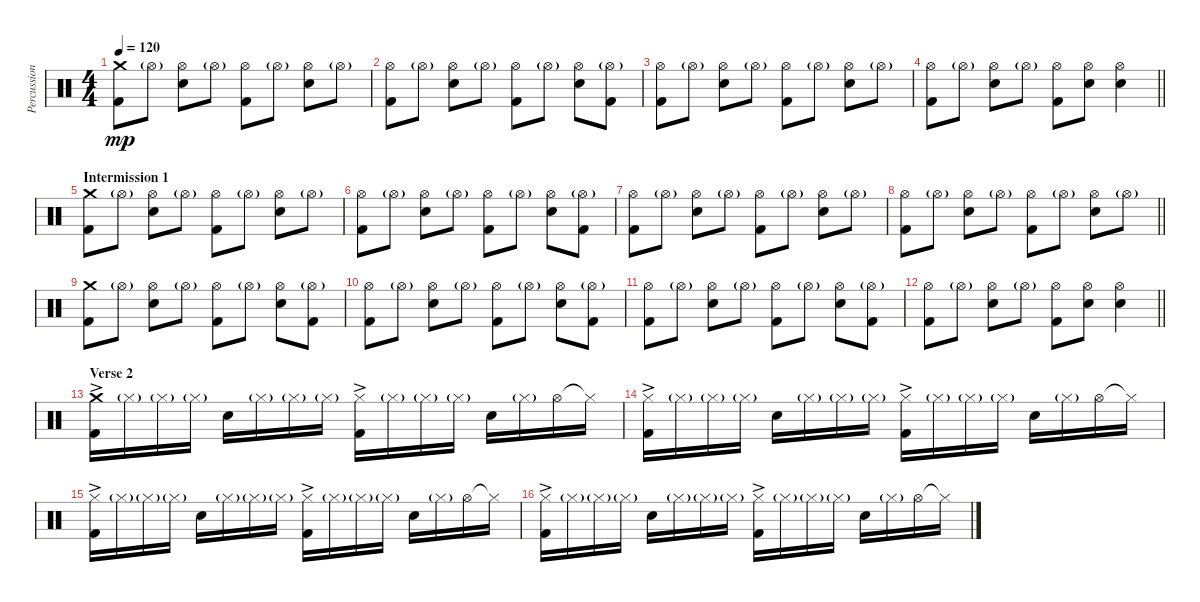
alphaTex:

\track ("Percussion" "Percussion") {instrument percussion}
\staff {score}
\articulation defaults
\ts (4 4)
\tempo 120
\clef neutral
\ks c
("Crash medium (hit)" "Kick (hit) 2").8{dy mp} "Hi-Hat (open)"{g}.8 ("Hi-Hat (open)" "Electric Snare (hit)").8 "Hi-Hat (open)"{g}.8 ("Hi-Hat (open)" "Kick (hit) 2").8 "Hi-Hat (open)"{g}.8 ("Hi-Hat (open)" "Electric Snare (hit)").8 "Hi-Hat (open)"{g}.8 |
("Hi-Hat (open)" "Kick (hit) 2").8 "Hi-Hat (open)"{g}.8 ("Hi-Hat (open)" "Electric Snare (hit)").8 "Hi-Hat (open)"{g}.8 ("Hi-Hat (open)" "Kick (hit) 2").8 "Hi-Hat (open)"{g}.8 ("Hi-Hat (open)" "Electric Snare (hit)").8 ("Hi-Hat (open)"{g} "Kick (hit) 2").8 |
("Hi-Hat (open)" "Kick (hit) 2").8 "Hi-Hat (open)"{g}.8 ("Hi-Hat (open)" "Electric Snare (hit)").8 "Hi-Hat (open)"{g}.8 ("Hi-Hat (open)" "Kick (hit) 2").8 "Hi-Hat (open)"{g}.8 ("Hi-Hat (open)" "Electric Snare (hit)").8 "Hi-Hat (open)"{g}.8 |
\barLineRight lightlight
("Hi-Hat (open)" "Kick (hit) 2").8 "Hi-Hat (open)"{g}.8 ("Hi-Hat (open)" "Electric Snare (hit)").8 "Hi-Hat (open)"{g}.8 ("Hi-Hat (open)" "Kick (hit) 2").8 ("Hi-Hat (open)" "Electric Snare (hit)").8 ("Hi-Hat (open)" "Electric Snare (hit)").4 |
\section ("" "Intermission 1")
("Crash medium (hit)" "Kick (hit) 2").8 "Hi-Hat (open)"{g}.8 ("Hi-Hat (open)" "Electric Snare (hit)").8 "Hi-Hat (open)"{g}.8 ("Hi-Hat (open)" "Kick (hit) 2").8 "Hi-Hat (open)"{g}.8 ("Hi-Hat (open)" "Electric Snare (hit)").8 "Hi-Hat (open)"{g}.8 |
("Hi-Hat (open)" "Kick (hit) 2").8 "Hi-Hat (open)"{g}.8 ("Hi-Hat (open)" "Electric Snare (hit)").8 "Hi-Hat (open)"{g}.8 ("Hi-Hat (open)" "Kick (hit) 2").8 "Hi-Hat (open)"{g}.8 ("Hi-Hat (open)" "Electric Snare (hit)").8 ("Hi-Hat (open)"{g} "Kick (hit) 2").8 |
("Hi-Hat (open)" "Kick (hit) 2").8 "Hi-Hat (open)"{g}.8 ("Hi-Hat (open)" "Electric Snare (hit)").8 "Hi-Hat (open)"{g}.8 ("Hi-Hat (open)" "Kick (hit) 2").8 "Hi-Hat (open)"{g}.8 ("Hi-Hat (open)" "Electric Snare (hit)").8 "Hi-Hat (open)"{g}.8 |
\barLineRight lightlight
("Hi-Hat (open)" "Kick (hit) 2").8 "Hi-Hat (open)"{g}.8 ("Hi-Hat (open)" "Electric Snare (hit)").8 "Hi-Hat (open)"{g}.8 ("Hi-Hat (open)" "Kick (hit) 2").8 "Hi-Hat (open)"{g}.8 ("Hi-Hat (open)" "Electric Snare (hit)").8 "Hi-Hat (open)"{g}.8 |
("Crash medium (hit)" "Kick (hit) 2").8 "Hi-Hat (open)"{g}.8 ("Hi-Hat (open)" "Electric Snare (hit)").8 "Hi-Hat (open)"{g}.8 ("Hi-Hat (open)" "Kick (hit) 2").8 "Hi-Hat (open)"{g}.8 ("Hi-Hat (open)" "Electric Snare (hit)").8 ("Hi-Hat (open)"{g} "Kick (hit) 2").8 |
("Hi-Hat (open)" "Kick (hit) 2").8 "Hi-Hat (open)"{g}.8 ("Hi-Hat (open)" "Electric Snare (hit)").8 "Hi-Hat (open)"{g}.8 ("Hi-Hat (open)" "Kick (hit) 2").8 "Hi-Hat (open)"{g}.8 ("Hi-Hat (open)" "Electric Snare (hit)").8 ("Hi-Hat (open)"{g} "Kick (hit) 2").8 |
("Hi-Hat (open)" "Kick (hit) 2").8 "Hi-Hat (open)"{g}.8 ("Hi-Hat (open)" "Electric Snare (hit)").8 "Hi-Hat (open)"{g}.8 ("Hi-Hat (open)" "Kick (hit) 2").8 "Hi-Hat (open)"{g}.8 ("Hi-Hat (open)" "Electric Snare (hit)").8 ("Hi-Hat (open)"{g} "Kick (hit) 2").8 |
\barLineRight lightlight
("Hi-Hat (open)" "Kick (hit) 2").8 "Hi-Hat (open)"{g}.8 ("Hi-Hat (open)" "Electric Snare (hit)").8 "Hi-Hat (open)"{g}.8 ("Hi-Hat (open)" "Kick (hit) 2").8 ("Hi-Hat (open)" "Electric Snare (hit)").8 ("Hi-Hat (open)" "Electric Snare (hit)").4 |
\section ("" "Verse 2")
("Crash medium (hit)"{ac} "Kick (hit) 2").16{volume 16} "Hi-Hat (closed)"{g}.16 "Hi-Hat (closed)"{g}.16 "Hi-Hat (closed)"{g}.16 "Electric Snare (hit)".16 "Hi-Hat (closed)"{g}.16 "Hi-Hat (closed)"{g}.16 "Hi-Hat (closed)"{g}.16 ("Hi-Hat (closed)"{ac} "Kick (hit) 2"{ac}).16 "Hi-Hat (closed)"{g}.16 "Hi-Hat (closed)"{g}.16 "Hi-Hat (closed)"{g}.16 "Electric Snare (hit)".16 "Hi-Hat (closed)"{g}.16 "Hi-Hat (open)".16 "Hi-Hat (closed)"{t}.16 |
("Hi-Hat (closed)"{ac} "Kick (hit) 2").16 "Hi-Hat (closed)"{g}.16 "Hi-Hat (closed)"{g}.16 "Hi-Hat (closed)"{g}.16 "Electric Snare (hit)".16 "Hi-Hat (closed)"{g}.16 "Hi-Hat (closed)"{g}.16 "Hi-Hat (closed)"{g}.16 ("Hi-Hat (closed)"{ac} "Kick (hit) 2"{ac}).16 "Hi-Hat (closed)"{g}.16 "Hi-Hat (closed)"{g}.16 "Hi-Hat (closed)"{g}.16 "Electric Snare (hit)".16 "Hi-Hat (closed)"{g}.16 "Hi-Hat (open)".16 "Hi-Hat (closed)"{t}.16 |
("Hi-Hat (closed)"{ac} "Kick (hit) 2").16 "Hi-Hat (closed)"{g}.16 "Hi-Hat (closed)"{g}.16 "Hi-Hat (closed)"{g}.16 "Electric Snare (hit)".16 "Hi-Hat (closed)"{g}.16 "Hi-Hat (closed)"{g}.16 "Hi-Hat (closed)"{g}.16 ("Hi-Hat (closed)"{ac} "Kick (hit) 2"{ac}).16 "Hi-Hat (closed)"{g}.16 "Hi-Hat (closed)"{g}.16 "Hi-Hat (closed)"{g}.16 "Electric Snare (hit)".16 "Hi-Hat (closed)"{g}.16 "Hi-Hat (open)".16 "Hi-Hat (closed)"{t}.16 |
("Hi-Hat (closed)"{ac} "Kick (hit) 2").16 "Hi-Hat (closed)"{g}.16 "Hi-Hat (closed)"{g}.16 "Hi-Hat (closed)"{g}.16 "Electric Snare (hit)".16 "Hi-Hat (closed)"{g}.16 "Hi-Hat (closed)"{g}.16 "Hi-Hat (closed)"{g}.16 ("Hi-Hat (closed)"{ac} "Kick (hit) 2"{ac}).16 "Hi-Hat (closed)"{g}.16 "Hi-Hat (closed)"{g}.16 "Hi-Hat (closed)"{g}.16 "Electric Snare (hit)".16 "Hi-Hat (closed)"{g}.16 "Hi-Hat (open)".16 "Hi-Hat (closed)"{t}.16
